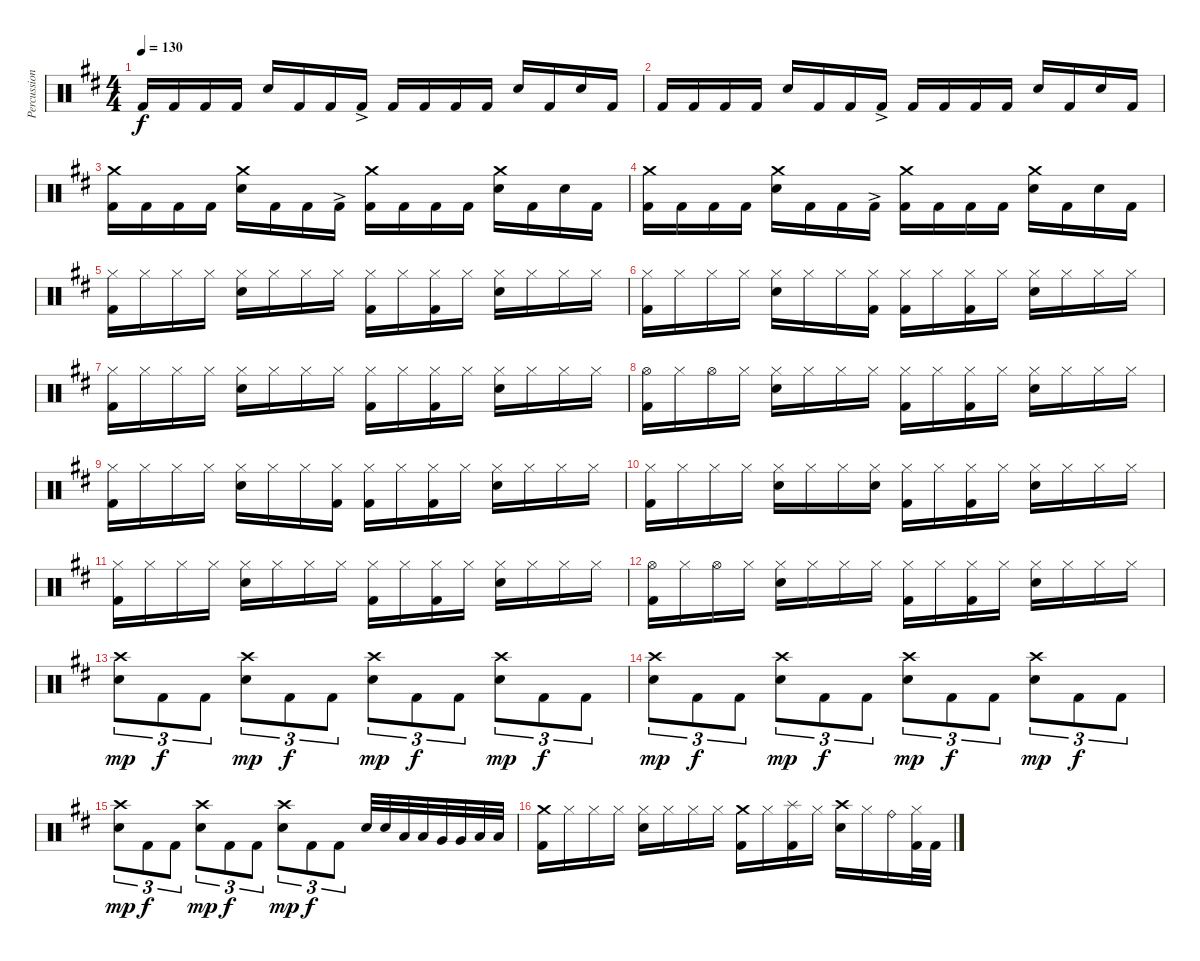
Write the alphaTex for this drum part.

\track ("Percussion" "Percussion") {instrument percussion}
\staff {score}
\articulation defaults
\ts (4 4)
\tempo 130
\clef neutral
\ks d "Kick (hit) 2".16{dy f} "Kick (hit) 2".16 "Kick (hit) 2".16 "Kick (hit) 2".16 "Snare (hit) 2".16 "Kick (hit) 2".16 "Kick (hit) 2".16 "Kick (hit) 2"{ac}.16 "Kick (hit) 2".16 "Kick (hit) 2".16 "Kick (hit) 2".16 "Kick (hit) 2".16 "Snare (hit) 2".16 "Kick (hit) 2".16 "Snare (hit) 2".16 "Kick (hit) 2".16
|
"Kick (hit) 2".16 "Kick (hit) 2".16 "Kick (hit) 2".16 "Kick (hit) 2".16 "Snare (hit) 2".16 "Kick (hit) 2".16 "Kick (hit) 2".16 "Kick (hit) 2"{ac}.16 "Kick (hit) 2".16 "Kick (hit) 2".16 "Kick (hit) 2".16 "Kick (hit) 2".16 "Snare (hit) 2".16 "Kick (hit) 2".16 "Snare (hit) 2".16 "Kick (hit) 2".16 |
("Crash medium (hit)" "Kick (hit) 2").16 "Kick (hit) 2".16 "Kick (hit) 2".16 "Kick (hit) 2".16 ("Crash medium (hit)" "Snare (hit) 2").16 "Kick (hit) 2".16 "Kick (hit) 2".16 "Kick (hit) 2"{ac}.16 ("Crash medium (hit)" "Kick (hit) 2").16 "Kick (hit) 2".16 "Kick (hit) 2".16 "Kick (hit) 2".16 ("Crash medium (hit)" "Snare (hit) 2").16 "Kick (hit) 2".16 "Snare (hit) 2".16 "Kick (hit) 2".16 |
("Crash medium (hit)" "Kick (hit) 2").16 "Kick (hit) 2".16 "Kick (hit) 2".16 "Kick (hit) 2".16 ("Crash medium (hit)" "Snare (hit) 2").16 "Kick (hit) 2".16 "Kick (hit) 2".16 "Kick (hit) 2"{ac}.16 ("Crash medium (hit)" "Kick (hit) 2").16 "Kick (hit) 2".16 "Kick (hit) 2".16 "Kick (hit) 2".16 ("Crash medium (hit)" "Snare (hit) 2").16 "Kick (hit) 2".16 "Snare (hit) 2".16 "Kick (hit) 2".16 |
("Hi-Hat (closed)" "Kick (hit) 2").16 "Hi-Hat (closed)".16 "Hi-Hat (closed)".16 "Hi-Hat (closed)".16 ("Hi-Hat (closed)" "Snare (hit) 2").16 "Hi-Hat (closed)".16 "Hi-Hat (closed)".16 "Hi-Hat (closed)".16 ("Hi-Hat (closed)" "Kick (hit) 2").16 "Hi-Hat (closed)".16 ("Hi-Hat (closed)" "Kick (hit) 2").16 "Hi-Hat (closed)".16 ("Hi-Hat (closed)" "Snare (hit) 2").16 "Hi-Hat (closed)".16 "Hi-Hat (closed)".16 "Hi-Hat (closed)".16 |
("Hi-Hat (closed)" "Kick (hit) 2").16 "Hi-Hat (closed)".16 "Hi-Hat (closed)".16 "Hi-Hat (closed)".16 ("Hi-Hat (closed)" "Snare (hit) 2").16 "Hi-Hat (closed)".16 "Hi-Hat (closed)".16 ("Hi-Hat (closed)" "Kick (hit) 2").16 ("Hi-Hat (closed)" "Kick (hit) 2").16 "Hi-Hat (closed)".16 ("Hi-Hat (closed)" "Kick (hit) 2").16 "Hi-Hat (closed)".16 ("Hi-Hat (closed)" "Snare (hit) 2").16 "Hi-Hat (closed)".16 "Hi-Hat (closed)".16 "Hi-Hat (closed)".16 |
("Hi-Hat (closed)" "Kick (hit) 2").16 "Hi-Hat (closed)".16 "Hi-Hat (closed)".16 "Hi-Hat (closed)".16 ("Hi-Hat (closed)" "Snare (hit) 2").16 "Hi-Hat (closed)".16 "Hi-Hat (closed)".16 "Hi-Hat (closed)".16 ("Hi-Hat (closed)" "Kick (hit) 2").16 "Hi-Hat (closed)".16 ("Hi-Hat (closed)" "Kick (hit) 2").16 "Hi-Hat (closed)".16 ("Hi-Hat (closed)" "Snare (hit) 2").16 "Hi-Hat (closed)".16 "Hi-Hat (closed)".16 "Hi-Hat (closed)".16 |
("Hi-Hat (open)" "Kick (hit) 2").16 "Hi-Hat (closed)".16 "Hi-Hat (open)".16 "Hi-Hat (closed)".16 ("Hi-Hat (closed)" "Snare (hit) 2").16 "Hi-Hat (closed)".16 "Hi-Hat (closed)".16 "Hi-Hat (closed)".16 ("Hi-Hat (closed)" "Kick (hit) 2").16 "Hi-Hat (closed)".16 ("Hi-Hat (closed)" "Kick (hit) 2").16 "Hi-Hat (closed)".16 ("Hi-Hat (closed)" "Snare (hit) 2").16 "Hi-Hat (closed)".16 "Hi-Hat (closed)".16 "Hi-Hat (closed)".16 |
("Hi-Hat (closed)" "Kick (hit) 2").16 "Hi-Hat (closed)".16 "Hi-Hat (closed)".16 "Hi-Hat (closed)".16 ("Hi-Hat (closed)" "Snare (hit) 2").16 "Hi-Hat (closed)".16 "Hi-Hat (closed)".16 ("Hi-Hat (closed)" "Kick (hit) 2").16 ("Hi-Hat (closed)" "Kick (hit) 2").16 "Hi-Hat (closed)".16 ("Hi-Hat (closed)" "Kick (hit) 2").16 "Hi-Hat (closed)".16 ("Hi-Hat (closed)" "Snare (hit) 2").16 "Hi-Hat (closed)".16 "Hi-Hat (closed)".16 "Hi-Hat (closed)".16 |
("Hi-Hat (closed)" "Kick (hit) 2").16 "Hi-Hat (closed)".16 "Hi-Hat (closed)".16 "Hi-Hat (closed)".16 ("Hi-Hat (closed)" "Snare (hit) 2").16 "Hi-Hat (closed)".16 "Hi-Hat (closed)".16 ("Hi-Hat (closed)" "Snare (hit) 2").16 ("Hi-Hat (closed)" "Kick (hit) 2").16 "Hi-Hat (closed)".16 ("Hi-Hat (closed)" "Kick (hit) 2").16 "Hi-Hat (closed)".16 ("Hi-Hat (closed)" "Snare (hit) 2").16 "Hi-Hat (closed)".16 "Hi-Hat (closed)".16 "Hi-Hat (closed)".16 |
("Hi-Hat (closed)" "Kick (hit) 2").16 "Hi-Hat (closed)".16 "Hi-Hat (closed)".16 "Hi-Hat (closed)".16 ("Hi-Hat (closed)" "Snare (hit) 2").16 "Hi-Hat (closed)".16 "Hi-Hat (closed)".16 "Hi-Hat (closed)".16 ("Hi-Hat (closed)" "Kick (hit) 2").16 "Hi-Hat (closed)".16 ("Hi-Hat (closed)" "Kick (hit) 2").16 "Hi-Hat (closed)".16 ("Hi-Hat (closed)" "Snare (hit) 2").16 "Hi-Hat (closed)".16 "Hi-Hat (closed)".16 "Hi-Hat (closed)".16 |
("Hi-Hat (open)" "Kick (hit) 2").16 "Hi-Hat (closed)".16 "Hi-Hat (open)".16 "Hi-Hat (closed)".16 ("Hi-Hat (closed)" "Snare (hit) 2").16 "Hi-Hat (closed)".16 "Hi-Hat (closed)".16 "Hi-Hat (closed)".16 ("Hi-Hat (closed)" "Kick (hit) 2").16 "Hi-Hat (closed)".16 ("Hi-Hat (closed)" "Kick (hit) 2").16 "Hi-Hat (closed)".16 ("Hi-Hat (closed)" "Snare (hit) 2").16 "Hi-Hat (closed)".16 "Hi-Hat (closed)".16 "Hi-Hat (closed)".16 |
("Crash high (hit)" "Snare (hit) 2").8{tu (3 2) dy mp} "Kick (hit) 2".8{tu (3 2) dy f} "Kick (hit) 2".8{tu (3 2)} ("Crash high (hit)" "Snare (hit) 2").8{tu (3 2) dy mp} "Kick (hit) 2".8{tu (3 2) dy f} "Kick (hit) 2".8{tu (3 2)} ("Crash high (hit)" "Snare (hit) 2").8{tu (3 2) dy mp} "Kick (hit) 2".8{tu (3 2) dy f} "Kick (hit) 2".8{tu (3 2)} ("Crash high (hit)" "Snare (hit) 2").8{tu (3 2) dy mp} "Kick (hit) 2".8{tu (3 2) dy f} "Kick (hit) 2".8{tu (3 2)} |
("Crash high (hit)" "Snare (hit) 2").8{tu (3 2) dy mp} "Kick (hit) 2".8{tu (3 2) dy f} "Kick (hit) 2".8{tu (3 2)} ("Crash high (hit)" "Snare (hit) 2").8{tu (3 2) dy mp} "Kick (hit) 2".8{tu (3 2) dy f} "Kick (hit) 2".8{tu (3 2)} ("Crash high (hit)" "Snare (hit) 2").8{tu (3 2) dy mp} "Kick (hit) 2".8{tu (3 2) dy f} "Kick (hit) 2".8{tu (3 2)} ("Crash high (hit)" "Snare (hit) 2").8{tu (3 2) dy mp} "Kick (hit) 2".8{tu (3 2) dy f} "Kick (hit) 2".8{tu (3 2)} |
("Crash high (hit)" "Snare (hit) 2").8{tu (3 2) dy mp} "Kick (hit) 2".8{tu (3 2) dy f} "Kick (hit) 2".8{tu (3 2)} ("Crash high (hit)" "Snare (hit) 2").8{tu (3 2) dy mp} "Kick (hit) 2".8{tu (3 2) dy f} "Kick (hit) 2".8{tu (3 2)} ("Crash high (hit)" "Snare (hit) 2").8{tu (3 2) dy mp} "Kick (hit) 2".8{tu (3 2) dy f} "Kick (hit) 2".8{tu (3 2)} "Snare (hit) 2".32 "Snare (hit) 2".32 "Low Tom (hit)".32 "Low Tom (hit)".32 "Very Low Tom (hit)".32 "Very Low Tom (hit)".32 "Low Floor Tom (hit)".32 "Low Floor Tom (hit)".32 |
("Crash medium (hit)" "Kick (hit) 2").16 "Hi-Hat (closed)".16 "Hi-Hat (closed)".16 "Hi-Hat (closed)".16 ("Hi-Hat (closed)" "Snare (hit) 2").16 "Hi-Hat (closed)".16 "Hi-Hat (closed)".16 "Hi-Hat (closed)".16 ("Crash medium (hit)" "Kick (hit) 2").16 "Hi-Hat (closed)".16 ("Splash (hit)" "Kick (hit) 2").16 "Hi-Hat (closed)".16 ("Crash high (hit)" "Snare (hit) 2").16 "Hi-Hat (closed)".16 "Ride (bell)".16 ("Hi-Hat (closed)" "Kick (hit) 2").32 "Kick (hit) 2".32
